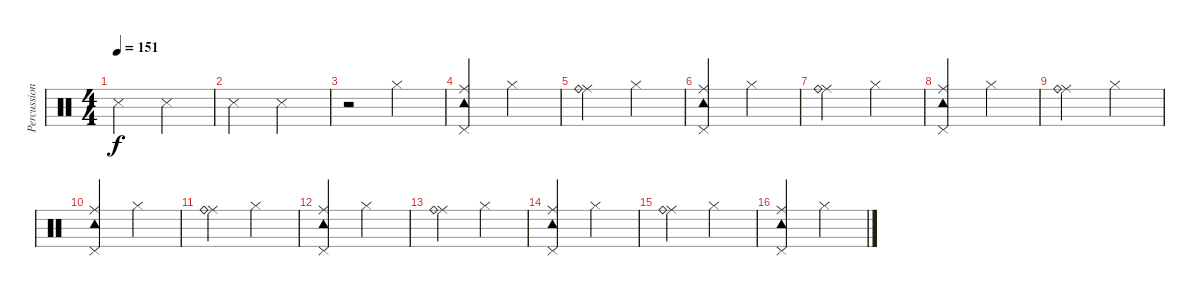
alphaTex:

\track ("Percussion" "Percussion") {instrument percussion}
\staff {score}
\articulation defaults
\ts (4 4)
\tempo 151
\tempo 150
\tempo 151
\clef neutral
\ks c "Metronome (hit)".2{dy f} "Metronome (hit)".2
|
"Metronome (hit)".2 "Metronome (hit)".2 |
r.2 "Hi-Hat (closed)".2 |
("Ride (middle)" "Tambourine (hit)" "Pedal Hi-Hat (hit)").2 "Hi-Hat (closed)".2 |
("Ride (middle)" "Ride (bell)").2 "Hi-Hat (closed)".2 |
("Ride (middle)" "Tambourine (hit)" "Pedal Hi-Hat (hit)").2 "Hi-Hat (closed)".2 |
("Ride (middle)" "Ride (bell)").2 "Hi-Hat (closed)".2 |
("Ride (middle)" "Tambourine (hit)" "Pedal Hi-Hat (hit)").2 "Hi-Hat (closed)".2 |
("Ride (middle)" "Ride (bell)").2 "Hi-Hat (closed)".2 |
("Ride (middle)" "Tambourine (hit)" "Pedal Hi-Hat (hit)").2 "Hi-Hat (closed)".2 |
("Ride (middle)" "Ride (bell)").2 "Hi-Hat (closed)".2 |
("Ride (middle)" "Tambourine (hit)" "Pedal Hi-Hat (hit)").2 "Hi-Hat (closed)".2 |
("Ride (middle)" "Ride (bell)").2 "Hi-Hat (closed)".2 |
("Ride (middle)" "Tambourine (hit)" "Pedal Hi-Hat (hit)").2 "Hi-Hat (closed)".2 |
("Ride (middle)" "Ride (bell)").2 "Hi-Hat (closed)".2 |
("Ride (middle)" "Tambourine (hit)" "Pedal Hi-Hat (hit)").2 "Hi-Hat (closed)".2
